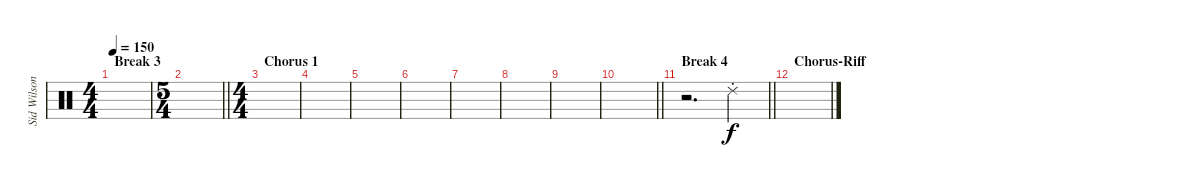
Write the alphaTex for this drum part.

\track ("Sid Wilson" "Sid Wilson") {instrument percussion}
\staff {score}
\articulation defaults
\ts (4 4)
\section ("" "Break 3")
\tempo 150
\clef neutral
\ks c
|
\ts (5 4)
\barLineRight lightlight
|
\ts (4 4)
\section ("" "Chorus 1")
|
|
|
|
|
|
|
\barLineRight lightlight
|
\section ("" "Break 4")
\barLineRight lightlight
r.2{d} "Ride (choke) 2".4 |
\section ("" "Chorus-Riff ")
